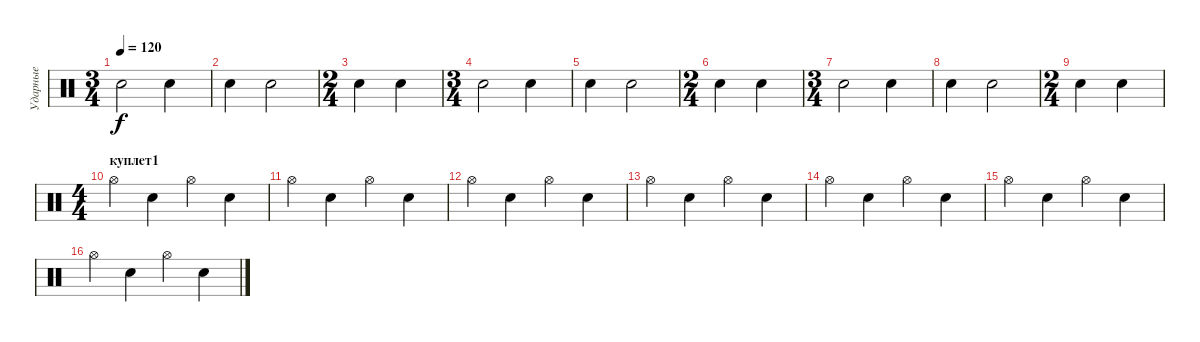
\track ("Ударные" "Ударные") {instrument percussion}
\staff {score}
\articulation defaults
\ts (3 4)
\tempo 120
\clef neutral
\ks c "Electric Snare (hit)".2{dy f} "Electric Snare (hit)".4
|
"Electric Snare (hit)".4 "Electric Snare (hit)".2 |
\ts (2 4)
"Electric Snare (hit)".4 "Electric Snare (hit)".4 |
\ts (3 4)
"Electric Snare (hit)".2 "Electric Snare (hit)".4 |
"Electric Snare (hit)".4 "Electric Snare (hit)".2 |
\ts (2 4)
"Electric Snare (hit)".4 "Electric Snare (hit)".4 |
\ts (3 4)
"Electric Snare (hit)".2 "Electric Snare (hit)".4 |
"Electric Snare (hit)".4 "Electric Snare (hit)".2 |
\ts (2 4)
"Electric Snare (hit)".4 "Electric Snare (hit)".4 |
\ts (4 4)
\section ("" "куплет1")
"Hi-Hat (open)".4 "Electric Snare (hit)".4 "Hi-Hat (open)".4 "Electric Snare (hit)".4 |
"Hi-Hat (open)".4 "Electric Snare (hit)".4 "Hi-Hat (open)".4 "Electric Snare (hit)".4 |
"Hi-Hat (open)".4 "Electric Snare (hit)".4 "Hi-Hat (open)".4 "Electric Snare (hit)".4 |
"Hi-Hat (open)".4 "Electric Snare (hit)".4 "Hi-Hat (open)".4 "Electric Snare (hit)".4 |
"Hi-Hat (open)".4 "Electric Snare (hit)".4 "Hi-Hat (open)".4 "Electric Snare (hit)".4 |
"Hi-Hat (open)".4 "Electric Snare (hit)".4 "Hi-Hat (open)".4 "Electric Snare (hit)".4 |
"Hi-Hat (open)".4 "Electric Snare (hit)".4 "Hi-Hat (open)".4 "Electric Snare (hit)".4
